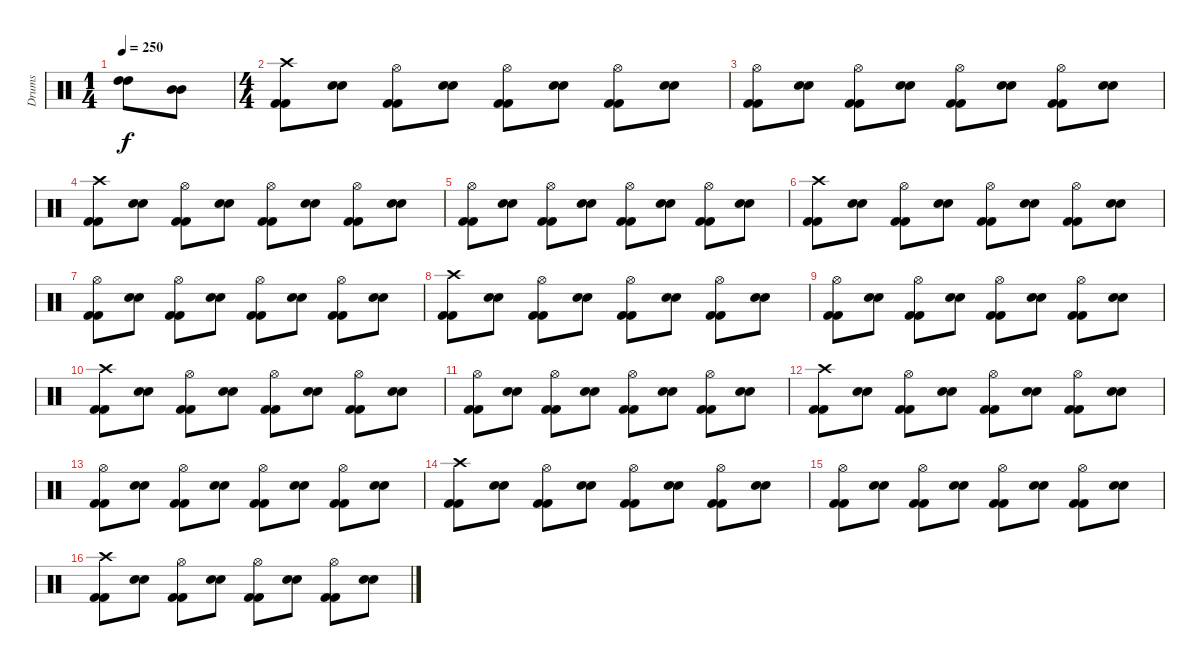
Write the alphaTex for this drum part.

\track ("Drums" "Drums") {instrument percussion}
\staff {score}
\articulation defaults
\ts (1 4)
\tempo 250
\clef neutral
\ks c
("High Tom (hit)" "High Tom (hit)").8{dy f} ("Mid Tom (hit)" "Mid Tom (hit)").8 |
\ts (4 4)
("Kick (hit) 2" "Kick (hit) 2" "Crash high (hit)").8 ("Electric Snare (hit)" "Electric Snare (hit)").8 ("Kick (hit) 2" "Kick (hit) 2" "Hi-Hat (open)").8 ("Electric Snare (hit)" "Electric Snare (hit)").8 ("Kick (hit) 2" "Kick (hit) 2" "Hi-Hat (open)").8 ("Electric Snare (hit)" "Electric Snare (hit)").8 ("Kick (hit) 2" "Kick (hit) 2" "Hi-Hat (open)").8 ("Electric Snare (hit)" "Electric Snare (hit)").8 |
("Kick (hit) 2" "Kick (hit) 2" "Hi-Hat (open)").8 ("Electric Snare (hit)" "Electric Snare (hit)").8 ("Kick (hit) 2" "Kick (hit) 2" "Hi-Hat (open)").8 ("Electric Snare (hit)" "Electric Snare (hit)").8 ("Kick (hit) 2" "Kick (hit) 2" "Hi-Hat (open)").8 ("Electric Snare (hit)" "Electric Snare (hit)").8 ("Kick (hit) 2" "Kick (hit) 2" "Hi-Hat (open)").8 ("Electric Snare (hit)" "Electric Snare (hit)").8 |
("Kick (hit) 2" "Kick (hit) 2" "Crash high (hit)").8 ("Electric Snare (hit)" "Electric Snare (hit)").8 ("Kick (hit) 2" "Kick (hit) 2" "Hi-Hat (open)").8 ("Electric Snare (hit)" "Electric Snare (hit)").8 ("Kick (hit) 2" "Kick (hit) 2" "Hi-Hat (open)").8 ("Electric Snare (hit)" "Electric Snare (hit)").8 ("Kick (hit) 2" "Kick (hit) 2" "Hi-Hat (open)").8 ("Electric Snare (hit)" "Electric Snare (hit)").8 |
("Kick (hit) 2" "Kick (hit) 2" "Hi-Hat (open)").8 ("Electric Snare (hit)" "Electric Snare (hit)").8 ("Kick (hit) 2" "Kick (hit) 2" "Hi-Hat (open)").8 ("Electric Snare (hit)" "Electric Snare (hit)").8 ("Kick (hit) 2" "Kick (hit) 2" "Hi-Hat (open)").8 ("Electric Snare (hit)" "Electric Snare (hit)").8 ("Kick (hit) 2" "Kick (hit) 2" "Hi-Hat (open)").8 ("Electric Snare (hit)" "Electric Snare (hit)").8 |
("Kick (hit) 2" "Kick (hit) 2" "Crash high (hit)").8 ("Electric Snare (hit)" "Electric Snare (hit)").8 ("Kick (hit) 2" "Kick (hit) 2" "Hi-Hat (open)").8 ("Electric Snare (hit)" "Electric Snare (hit)").8 ("Kick (hit) 2" "Kick (hit) 2" "Hi-Hat (open)").8 ("Electric Snare (hit)" "Electric Snare (hit)").8 ("Kick (hit) 2" "Kick (hit) 2" "Hi-Hat (open)").8 ("Electric Snare (hit)" "Electric Snare (hit)").8 |
("Kick (hit) 2" "Kick (hit) 2" "Hi-Hat (open)").8 ("Electric Snare (hit)" "Electric Snare (hit)").8 ("Kick (hit) 2" "Kick (hit) 2" "Hi-Hat (open)").8 ("Electric Snare (hit)" "Electric Snare (hit)").8 ("Kick (hit) 2" "Kick (hit) 2" "Hi-Hat (open)").8 ("Electric Snare (hit)" "Electric Snare (hit)").8 ("Kick (hit) 2" "Kick (hit) 2" "Hi-Hat (open)").8 ("Electric Snare (hit)" "Electric Snare (hit)").8 |
("Kick (hit) 2" "Kick (hit) 2" "Crash high (hit)").8 ("Electric Snare (hit)" "Electric Snare (hit)").8 ("Kick (hit) 2" "Kick (hit) 2" "Hi-Hat (open)").8 ("Electric Snare (hit)" "Electric Snare (hit)").8 ("Kick (hit) 2" "Kick (hit) 2" "Hi-Hat (open)").8 ("Electric Snare (hit)" "Electric Snare (hit)").8 ("Kick (hit) 2" "Kick (hit) 2" "Hi-Hat (open)").8 ("Electric Snare (hit)" "Electric Snare (hit)").8 |
("Kick (hit) 2" "Kick (hit) 2" "Hi-Hat (open)").8 ("Electric Snare (hit)" "Electric Snare (hit)").8 ("Kick (hit) 2" "Kick (hit) 2" "Hi-Hat (open)").8 ("Electric Snare (hit)" "Electric Snare (hit)").8 ("Kick (hit) 2" "Kick (hit) 2" "Hi-Hat (open)").8 ("Electric Snare (hit)" "Electric Snare (hit)").8 ("Kick (hit) 2" "Kick (hit) 2" "Hi-Hat (open)").8 ("Electric Snare (hit)" "Electric Snare (hit)").8 |
("Kick (hit) 2" "Kick (hit) 2" "Crash high (hit)").8 ("Electric Snare (hit)" "Electric Snare (hit)").8 ("Kick (hit) 2" "Kick (hit) 2" "Hi-Hat (open)").8 ("Electric Snare (hit)" "Electric Snare (hit)").8 ("Kick (hit) 2" "Kick (hit) 2" "Hi-Hat (open)").8 ("Electric Snare (hit)" "Electric Snare (hit)").8 ("Kick (hit) 2" "Kick (hit) 2" "Hi-Hat (open)").8 ("Electric Snare (hit)" "Electric Snare (hit)").8 |
("Kick (hit) 2" "Kick (hit) 2" "Hi-Hat (open)").8 ("Electric Snare (hit)" "Electric Snare (hit)").8 ("Kick (hit) 2" "Kick (hit) 2" "Hi-Hat (open)").8 ("Electric Snare (hit)" "Electric Snare (hit)").8 ("Kick (hit) 2" "Kick (hit) 2" "Hi-Hat (open)").8 ("Electric Snare (hit)" "Electric Snare (hit)").8 ("Kick (hit) 2" "Kick (hit) 2" "Hi-Hat (open)").8 ("Electric Snare (hit)" "Electric Snare (hit)").8 |
("Kick (hit) 2" "Kick (hit) 2" "Crash high (hit)").8 ("Electric Snare (hit)" "Electric Snare (hit)").8 ("Kick (hit) 2" "Kick (hit) 2" "Hi-Hat (open)").8 ("Electric Snare (hit)" "Electric Snare (hit)").8 ("Kick (hit) 2" "Kick (hit) 2" "Hi-Hat (open)").8 ("Electric Snare (hit)" "Electric Snare (hit)").8 ("Kick (hit) 2" "Kick (hit) 2" "Hi-Hat (open)").8 ("Electric Snare (hit)" "Electric Snare (hit)").8 |
("Kick (hit) 2" "Kick (hit) 2" "Hi-Hat (open)").8 ("Electric Snare (hit)" "Electric Snare (hit)").8 ("Kick (hit) 2" "Kick (hit) 2" "Hi-Hat (open)").8 ("Electric Snare (hit)" "Electric Snare (hit)").8 ("Kick (hit) 2" "Kick (hit) 2" "Hi-Hat (open)").8 ("Electric Snare (hit)" "Electric Snare (hit)").8 ("Kick (hit) 2" "Kick (hit) 2" "Hi-Hat (open)").8 ("Electric Snare (hit)" "Electric Snare (hit)").8 |
("Kick (hit) 2" "Kick (hit) 2" "Crash high (hit)").8 ("Electric Snare (hit)" "Electric Snare (hit)").8 ("Kick (hit) 2" "Kick (hit) 2" "Hi-Hat (open)").8 ("Electric Snare (hit)" "Electric Snare (hit)").8 ("Kick (hit) 2" "Kick (hit) 2" "Hi-Hat (open)").8 ("Electric Snare (hit)" "Electric Snare (hit)").8 ("Kick (hit) 2" "Kick (hit) 2" "Hi-Hat (open)").8 ("Electric Snare (hit)" "Electric Snare (hit)").8 |
("Kick (hit) 2" "Kick (hit) 2" "Hi-Hat (open)").8 ("Electric Snare (hit)" "Electric Snare (hit)").8 ("Kick (hit) 2" "Kick (hit) 2" "Hi-Hat (open)").8 ("Electric Snare (hit)" "Electric Snare (hit)").8 ("Kick (hit) 2" "Kick (hit) 2" "Hi-Hat (open)").8 ("Electric Snare (hit)" "Electric Snare (hit)").8 ("Kick (hit) 2" "Kick (hit) 2" "Hi-Hat (open)").8 ("Electric Snare (hit)" "Electric Snare (hit)").8 |
("Kick (hit) 2" "Kick (hit) 2" "Crash high (hit)").8 ("Electric Snare (hit)" "Electric Snare (hit)").8 ("Kick (hit) 2" "Kick (hit) 2" "Hi-Hat (open)").8 ("Electric Snare (hit)" "Electric Snare (hit)").8 ("Kick (hit) 2" "Kick (hit) 2" "Hi-Hat (open)").8 ("Electric Snare (hit)" "Electric Snare (hit)").8 ("Kick (hit) 2" "Kick (hit) 2" "Hi-Hat (open)").8 ("Electric Snare (hit)" "Electric Snare (hit)").8
